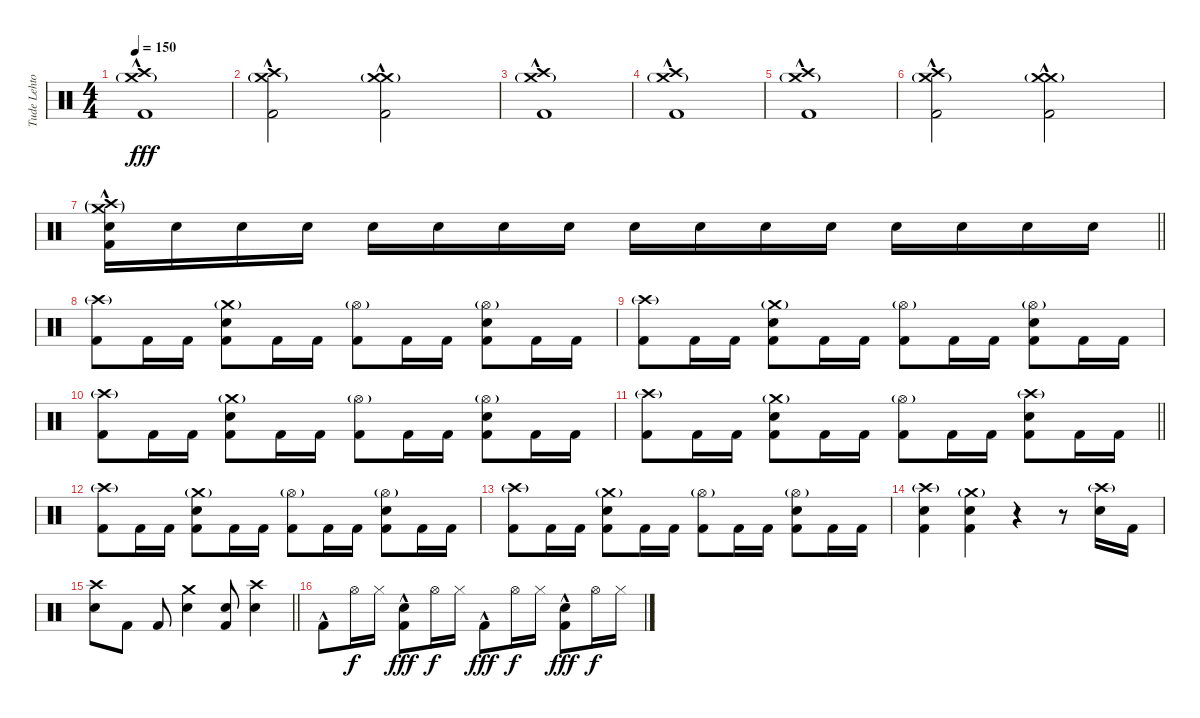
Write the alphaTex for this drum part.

\track ("Tude Lehtonen" "Tude Lehto") {instrument percussion}
\staff {score}
\articulation defaults
\ts (4 4)
\tempo 150
\clef neutral
\ks c
("Crash medium (hit)"{g} "Crash high (hit)" "Kick (hit) 2"{hac}).1{dy fff} |
("Crash medium (hit)"{g} "Crash high (hit)" "Kick (hit) 2"{hac}).2 ("Crash medium (hit)"{g} "Crash medium (hit)" "Kick (hit) 2"{hac}).2 |
("Crash medium (hit)"{g} "Crash high (hit)" "Kick (hit) 2"{hac}).1 |
("Crash medium (hit)"{g} "Crash high (hit)" "Kick (hit) 2"{hac}).1 |
("Crash medium (hit)"{g} "Crash high (hit)" "Kick (hit) 2"{hac}).1 |
("Crash medium (hit)"{g} "Crash high (hit)" "Kick (hit) 2"{hac}).2 ("Crash medium (hit)"{g} "Crash medium (hit)" "Kick (hit) 2"{hac}).2 |
\barLineRight lightlight
("Crash medium (hit)"{g} "Crash high (hit)"{g} "Snare (hit) 2" "Kick (hit) 2"{hac}).16 "Snare (hit) 2".16 "Snare (hit) 2".16 "Snare (hit) 2".16 "Snare (hit) 2".16 "Snare (hit) 2".16 "Snare (hit) 2".16 "Snare (hit) 2".16 "Snare (hit) 2".16 "Snare (hit) 2".16 "Snare (hit) 2".16 "Snare (hit) 2".16 "Snare (hit) 2".16 "Snare (hit) 2".16 "Snare (hit) 2".16 "Snare (hit) 2".16 |
\section ("" "")
("Crash high (hit)"{g} "Kick (hit) 2").8 "Kick (hit) 2".16 "Kick (hit) 2".16 ("Crash medium (hit)"{g} "Electric Snare (hit)" "Kick (hit) 2").8 "Kick (hit) 2".16 "Kick (hit) 2".16 ("Hi-Hat (open)"{g} "Kick (hit) 2").8 "Kick (hit) 2".16 "Kick (hit) 2".16 ("Hi-Hat (open)"{g} "Electric Snare (hit)" "Kick (hit) 2").8 "Kick (hit) 2".16 "Kick (hit) 2".16 |
("Crash high (hit)"{g} "Kick (hit) 2").8 "Kick (hit) 2".16 "Kick (hit) 2".16 ("Crash medium (hit)"{g} "Electric Snare (hit)" "Kick (hit) 2").8 "Kick (hit) 2".16 "Kick (hit) 2".16 ("Hi-Hat (open)"{g} "Kick (hit) 2").8 "Kick (hit) 2".16 "Kick (hit) 2".16 ("Hi-Hat (open)"{g} "Electric Snare (hit)" "Kick (hit) 2").8 "Kick (hit) 2".16 "Kick (hit) 2".16 |
("Crash high (hit)"{g} "Kick (hit) 2").8 "Kick (hit) 2".16 "Kick (hit) 2".16 ("Crash medium (hit)"{g} "Electric Snare (hit)" "Kick (hit) 2").8 "Kick (hit) 2".16 "Kick (hit) 2".16 ("Hi-Hat (open)"{g} "Kick (hit) 2").8 "Kick (hit) 2".16 "Kick (hit) 2".16 ("Hi-Hat (open)"{g} "Electric Snare (hit)" "Kick (hit) 2").8 "Kick (hit) 2".16 "Kick (hit) 2".16 |
\barLineRight lightlight
("Crash high (hit)"{g} "Kick (hit) 2").8 "Kick (hit) 2".16 "Kick (hit) 2".16 ("Crash medium (hit)"{g} "Electric Snare (hit)" "Kick (hit) 2").8 "Kick (hit) 2".16 "Kick (hit) 2".16 ("Hi-Hat (open)"{g} "Kick (hit) 2").8 "Kick (hit) 2".16 "Kick (hit) 2".16 ("Crash high (hit)"{g} "Electric Snare (hit)" "Kick (hit) 2").8 "Kick (hit) 2".16 "Kick (hit) 2".16 |
("Crash high (hit)"{g} "Kick (hit) 2").8 "Kick (hit) 2".16 "Kick (hit) 2".16 ("Crash medium (hit)"{g} "Electric Snare (hit)" "Kick (hit) 2").8 "Kick (hit) 2".16 "Kick (hit) 2".16 ("Hi-Hat (open)"{g} "Kick (hit) 2").8 "Kick (hit) 2".16 "Kick (hit) 2".16 ("Hi-Hat (open)"{g} "Electric Snare (hit)" "Kick (hit) 2").8 "Kick (hit) 2".16 "Kick (hit) 2".16 |
("Crash high (hit)"{g} "Kick (hit) 2").8 "Kick (hit) 2".16 "Kick (hit) 2".16 ("Crash medium (hit)"{g} "Electric Snare (hit)" "Kick (hit) 2").8 "Kick (hit) 2".16 "Kick (hit) 2".16 ("Hi-Hat (open)"{g} "Kick (hit) 2").8 "Kick (hit) 2".16 "Kick (hit) 2".16 ("Hi-Hat (open)"{g} "Electric Snare (hit)" "Kick (hit) 2").8 "Kick (hit) 2".16 "Kick (hit) 2".16 |
("Crash high (hit)"{g} "Electric Snare (hit)" "Kick (hit) 2").4 ("Crash medium (hit)"{g} "Electric Snare (hit)" "Kick (hit) 2").4 r.4 r.8 ("Crash high (hit)"{g} "Electric Snare (hit)").16 "Kick (hit) 2".16 |
\barLineRight lightlight
("Crash high (hit)" "Electric Snare (hit)").8 "Kick (hit) 2".8 "Kick (hit) 2".8 ("Crash medium (hit)" "Electric Snare (hit)").4 ("Electric Snare (hit)" "Kick (hit) 2").8 ("Crash high (hit)" "Electric Snare (hit)").4 |
\section ("" "")
"Kick (hit) 2"{hac}.8 "Hi-Hat (open)".16{dy f} "Hi-Hat (closed)".16 ("Electric Snare (hit)" "Kick (hit) 2"{hac}).8{dy fff} "Hi-Hat (open)".16{dy f} "Hi-Hat (closed)".16 "Kick (hit) 2"{hac}.8{dy fff} "Hi-Hat (open)".16{dy f} "Hi-Hat (closed)".16 ("Electric Snare (hit)" "Kick (hit) 2"{hac}).8{dy fff} "Hi-Hat (open)".16{dy f} "Hi-Hat (closed)".16
